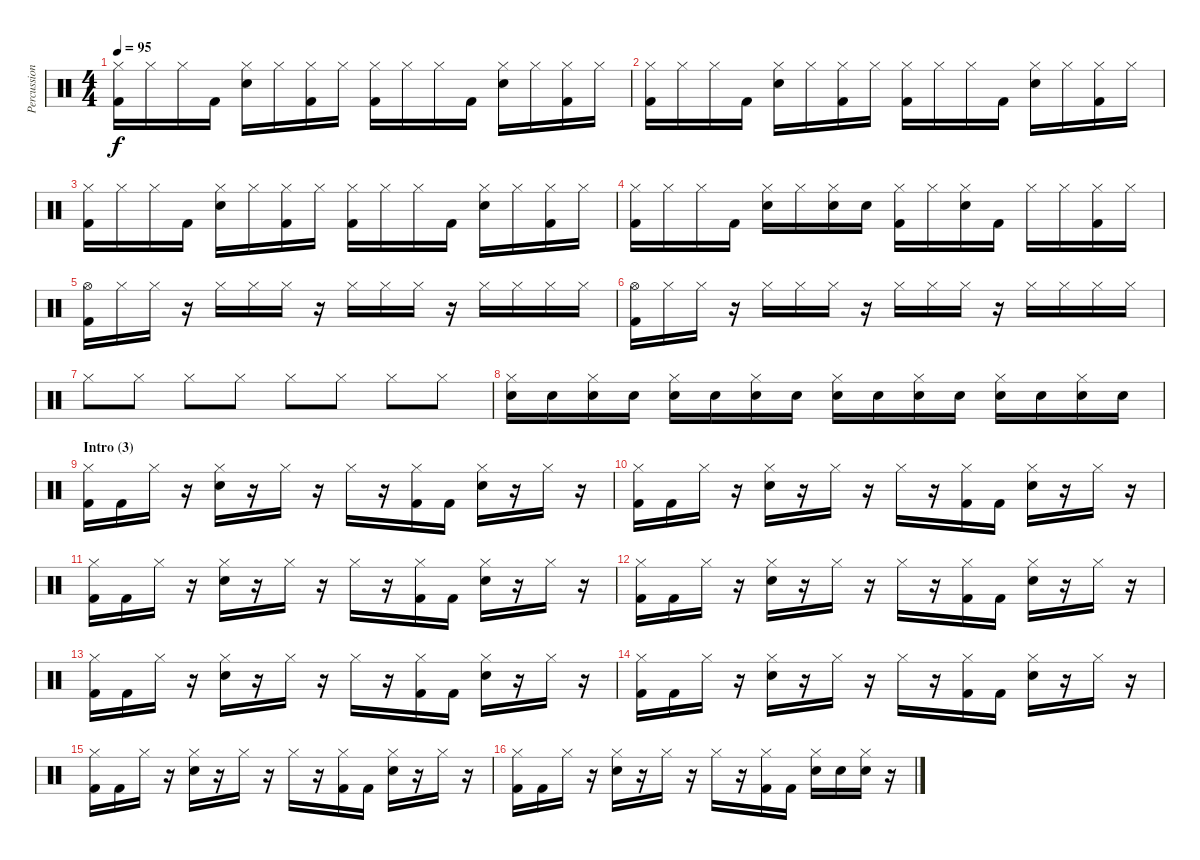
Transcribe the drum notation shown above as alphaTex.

\track ("Percussion" "Percussion") {instrument percussion}
\staff {score}
\articulation defaults
\ts (4 4)
\tempo 95
\clef neutral
\ks c
("Hi-Hat (closed)" "Kick (hit) 2").16{dy f} "Hi-Hat (closed)"{x}.16 "Hi-Hat (closed)".16 "Kick (hit) 2".16 ("Hi-Hat (closed)" "Snare (hit) 2").16 "Hi-Hat (closed)"{x}.16 ("Hi-Hat (closed)" "Kick (hit) 2").16 "Hi-Hat (closed)"{x}.16 ("Hi-Hat (closed)" "Kick (hit) 2").16 "Hi-Hat (closed)"{x}.16 "Hi-Hat (closed)".16 "Kick (hit) 2".16 ("Hi-Hat (closed)" "Snare (hit) 2").16 "Hi-Hat (closed)"{x}.16 ("Hi-Hat (closed)" "Kick (hit) 2").16 "Hi-Hat (closed)"{x}.16 |
("Hi-Hat (closed)" "Kick (hit) 2").16 "Hi-Hat (closed)"{x}.16 "Hi-Hat (closed)".16 "Kick (hit) 2".16 ("Hi-Hat (closed)" "Snare (hit) 2").16 "Hi-Hat (closed)"{x}.16 ("Hi-Hat (closed)" "Kick (hit) 2").16 "Hi-Hat (closed)"{x}.16 ("Hi-Hat (closed)" "Kick (hit) 2").16 "Hi-Hat (closed)"{x}.16 "Hi-Hat (closed)".16 "Kick (hit) 2".16 ("Hi-Hat (closed)" "Snare (hit) 2").16 "Hi-Hat (closed)"{x}.16 ("Hi-Hat (closed)" "Kick (hit) 2").16 "Hi-Hat (closed)"{x}.16 |
("Hi-Hat (closed)" "Kick (hit) 2").16 "Hi-Hat (closed)"{x}.16 "Hi-Hat (closed)".16 "Kick (hit) 2".16 ("Hi-Hat (closed)" "Snare (hit) 2").16 "Hi-Hat (closed)"{x}.16 ("Hi-Hat (closed)" "Kick (hit) 2").16 "Hi-Hat (closed)"{x}.16 ("Hi-Hat (closed)" "Kick (hit) 2").16 "Hi-Hat (closed)"{x}.16 "Hi-Hat (closed)".16 "Kick (hit) 2".16 ("Hi-Hat (closed)" "Snare (hit) 2").16 "Hi-Hat (closed)"{x}.16 ("Hi-Hat (closed)" "Kick (hit) 2").16 "Hi-Hat (closed)"{x}.16 |
("Hi-Hat (closed)" "Kick (hit) 2").16 "Hi-Hat (closed)"{x}.16 "Hi-Hat (closed)".16 "Kick (hit) 2".16 ("Hi-Hat (closed)" "Snare (hit) 2").16 "Hi-Hat (closed)"{x}.16 ("Hi-Hat (closed)" "Snare (hit) 2").16 "Snare (hit) 2".16 ("Hi-Hat (closed)" "Kick (hit) 2").16 "Hi-Hat (closed)"{x}.16 ("Hi-Hat (closed)" "Snare (hit) 2").16 "Kick (hit) 2".16 "Hi-Hat (closed)".16 "Hi-Hat (closed)"{x}.16 ("Hi-Hat (closed)" "Kick (hit) 2").16 "Hi-Hat (closed)"{x}.16 |
("Hi-Hat (open)" "Kick (hit) 2").16 "Hi-Hat (closed)"{x}.16 "Hi-Hat (closed)"{x}.16 r.16 "Hi-Hat (closed)".16 "Hi-Hat (closed)"{x}.16 "Hi-Hat (closed)"{x}.16 r.16 "Hi-Hat (closed)".16 "Hi-Hat (closed)"{x}.16 "Hi-Hat (closed)"{x}.16 r.16 "Hi-Hat (closed)".16 "Hi-Hat (closed)"{x}.16 "Hi-Hat (closed)"{x}.16 "Hi-Hat (closed)"{x}.16 |
("Hi-Hat (open)" "Kick (hit) 2").16 "Hi-Hat (closed)"{x}.16 "Hi-Hat (closed)"{x}.16 r.16 "Hi-Hat (closed)".16 "Hi-Hat (closed)"{x}.16 "Hi-Hat (closed)"{x}.16 r.16 "Hi-Hat (closed)".16 "Hi-Hat (closed)"{x}.16 "Hi-Hat (closed)"{x}.16 r.16 "Hi-Hat (closed)".16 "Hi-Hat (closed)"{x}.16 "Hi-Hat (closed)"{x}.16 "Hi-Hat (closed)"{x}.16 |
"Hi-Hat (closed)".8 "Hi-Hat (closed)"{x}.8 "Hi-Hat (closed)".8 "Hi-Hat (closed)".8 "Hi-Hat (closed)".8 "Hi-Hat (closed)".8 "Hi-Hat (closed)".8 "Hi-Hat (closed)".8 |
("Hi-Hat (closed)" "Snare (hit) 2").16 "Snare (hit) 2".16 ("Hi-Hat (closed)" "Snare (hit) 2").16 "Snare (hit) 2".16 ("Hi-Hat (closed)" "Snare (hit) 2").16 "Snare (hit) 2".16 ("Hi-Hat (closed)" "Snare (hit) 2").16 "Snare (hit) 2".16 ("Hi-Hat (closed)" "Snare (hit) 2").16 "Snare (hit) 2".16 ("Hi-Hat (closed)" "Snare (hit) 2").16 "Snare (hit) 2".16 ("Hi-Hat (closed)" "Snare (hit) 2").16 "Snare (hit) 2".16 ("Hi-Hat (closed)" "Snare (hit) 2").16 "Snare (hit) 2".16 |
\section ("" "Intro (3)")
("Hi-Hat (closed)" "Kick (hit) 2").16 "Kick (hit) 2".16 "Hi-Hat (closed)".16 r.16 ("Hi-Hat (closed)" "Snare (hit) 2").16 r.16 "Hi-Hat (closed)".16 r.16 "Hi-Hat (closed)".16 r.16 ("Hi-Hat (closed)" "Kick (hit) 2").16 "Kick (hit) 2".16 ("Hi-Hat (closed)" "Snare (hit) 2").16 r.16 "Hi-Hat (closed)".16 r.16 |
("Hi-Hat (closed)" "Kick (hit) 2").16 "Kick (hit) 2".16 "Hi-Hat (closed)".16 r.16 ("Hi-Hat (closed)" "Snare (hit) 2").16 r.16 "Hi-Hat (closed)".16 r.16 "Hi-Hat (closed)".16 r.16 ("Hi-Hat (closed)" "Kick (hit) 2").16 "Kick (hit) 2".16 ("Hi-Hat (closed)" "Snare (hit) 2").16 r.16 "Hi-Hat (closed)".16 r.16 |
("Hi-Hat (closed)" "Kick (hit) 2").16 "Kick (hit) 2".16 "Hi-Hat (closed)".16 r.16 ("Hi-Hat (closed)" "Snare (hit) 2").16 r.16 "Hi-Hat (closed)".16 r.16 "Hi-Hat (closed)".16 r.16 ("Hi-Hat (closed)" "Kick (hit) 2").16 "Kick (hit) 2".16 ("Hi-Hat (closed)" "Snare (hit) 2").16 r.16 "Hi-Hat (closed)".16 r.16 |
("Hi-Hat (closed)" "Kick (hit) 2").16 "Kick (hit) 2".16 "Hi-Hat (closed)".16 r.16 ("Hi-Hat (closed)" "Snare (hit) 2").16 r.16 "Hi-Hat (closed)".16 r.16 "Hi-Hat (closed)".16 r.16 ("Hi-Hat (closed)" "Kick (hit) 2").16 "Kick (hit) 2".16 ("Hi-Hat (closed)" "Snare (hit) 2").16 r.16 "Hi-Hat (closed)".16 r.16 |
("Hi-Hat (closed)" "Kick (hit) 2").16 "Kick (hit) 2".16 "Hi-Hat (closed)".16 r.16 ("Hi-Hat (closed)" "Snare (hit) 2").16 r.16 "Hi-Hat (closed)".16 r.16 "Hi-Hat (closed)".16 r.16 ("Hi-Hat (closed)" "Kick (hit) 2").16 "Kick (hit) 2".16 ("Hi-Hat (closed)" "Snare (hit) 2").16 r.16 "Hi-Hat (closed)".16 r.16 |
("Hi-Hat (closed)" "Kick (hit) 2").16 "Kick (hit) 2".16 "Hi-Hat (closed)".16 r.16 ("Hi-Hat (closed)" "Snare (hit) 2").16 r.16 "Hi-Hat (closed)".16 r.16 "Hi-Hat (closed)".16 r.16 ("Hi-Hat (closed)" "Kick (hit) 2").16 "Kick (hit) 2".16 ("Hi-Hat (closed)" "Snare (hit) 2").16 r.16 "Hi-Hat (closed)".16 r.16 |
("Hi-Hat (closed)" "Kick (hit) 2").16 "Kick (hit) 2".16 "Hi-Hat (closed)".16 r.16 ("Hi-Hat (closed)" "Snare (hit) 2").16 r.16 "Hi-Hat (closed)".16 r.16 "Hi-Hat (closed)".16 r.16 ("Hi-Hat (closed)" "Kick (hit) 2").16 "Kick (hit) 2".16 ("Hi-Hat (closed)" "Snare (hit) 2").16 r.16 "Hi-Hat (closed)".16 r.16 |
("Hi-Hat (closed)" "Kick (hit) 2").16 "Kick (hit) 2".16 "Hi-Hat (closed)".16 r.16 ("Hi-Hat (closed)" "Snare (hit) 2").16 r.16 "Hi-Hat (closed)".16 r.16 "Hi-Hat (closed)".16 r.16 ("Hi-Hat (closed)" "Kick (hit) 2").16 "Kick (hit) 2".16 ("Hi-Hat (closed)" "Snare (hit) 2").16 "Snare (hit) 2".16 ("Hi-Hat (closed)" "Snare (hit) 2").16 r.16
